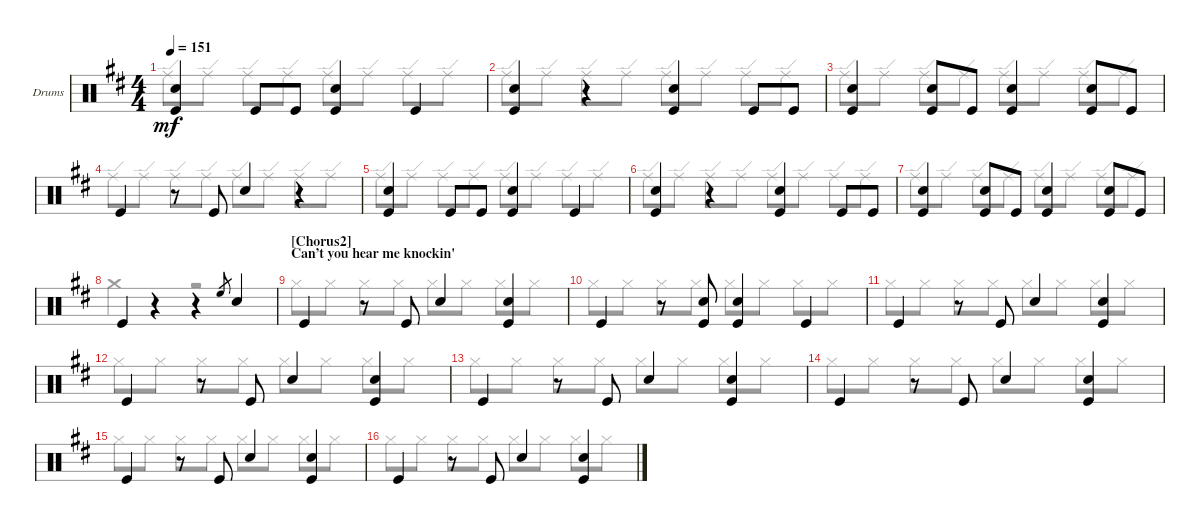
\bracketExtendMode groupsimilarinstruments
\firstSystemTrackNameOrientation horizontal
\otherSystemsTrackNameOrientation horizontal
\track ("Drumkit" "Drums") {instrument percussion}
\staff {score}
\articulation defaults
\voice
\ts (4 4)
\tempo 151
\clef neutral
\ks d
("Kick (hit)" "Snare (hit) 2").4{dy mf} "Kick (hit)".8 "Kick (hit)".8 ("Kick (hit)" "Snare (hit) 2").4 "Kick (hit)".4 |
("Kick (hit)" "Snare (hit) 2").4 r.4 ("Kick (hit)" "Snare (hit) 2").4 "Kick (hit)".8 "Kick (hit)".8 |
("Kick (hit)" "Snare (hit) 2").4 ("Kick (hit)" "Snare (hit) 2").8 "Kick (hit)".8 ("Kick (hit)" "Snare (hit) 2").4 ("Kick (hit)" "Snare (hit) 2").8 "Kick (hit)".8 |
"Kick (hit)".4 r.8 "Kick (hit)".8 "Snare (hit) 2".4 r.4 |
("Kick (hit)" "Snare (hit) 2").4 "Kick (hit)".8 "Kick (hit)".8 ("Kick (hit)" "Snare (hit) 2").4 "Kick (hit)".4 |
("Kick (hit)" "Snare (hit) 2").4 r.4 ("Kick (hit)" "Snare (hit) 2").4 "Kick (hit)".8 "Kick (hit)".8 |
("Kick (hit)" "Snare (hit) 2").4 ("Kick (hit)" "Snare (hit) 2").8 "Kick (hit)".8 ("Kick (hit)" "Snare (hit) 2").4 ("Kick (hit)" "Snare (hit) 2").8 "Kick (hit)".8 |
"Kick (hit)".4 r.4 r.4 "High Floor Tom (hit)".8{gr} "Snare (hit) 2".4 |
\section ("" "[Chorus2]\nCan’t you hear me knockin'\n")
"Kick (hit)".4 r.8 "Kick (hit)".8 "Snare (hit) 2".4 ("Kick (hit)" "Snare (hit) 2").4 |
"Kick (hit)".4 r.8 ("Kick (hit)" "Snare (hit) 2").8 ("Kick (hit)" "Snare (hit) 2").4 "Kick (hit)".4 |
"Kick (hit)".4 r.8 "Kick (hit)".8 "Snare (hit) 2".4 ("Kick (hit)" "Snare (hit) 2").4 |
"Kick (hit)".4 r.8 "Kick (hit)".8 "Snare (hit) 2".4 ("Kick (hit)" "Snare (hit) 2").4 |
"Kick (hit)".4 r.8 "Kick (hit)".8 "Snare (hit) 2".4 ("Kick (hit)" "Snare (hit) 2").4 |
"Kick (hit)".4 r.8 "Kick (hit)".8 "Snare (hit) 2".4 ("Kick (hit)" "Snare (hit) 2").4 |
"Kick (hit)".4 r.8 "Kick (hit)".8 "Snare (hit) 2".4 ("Kick (hit)" "Snare (hit) 2").4 |
"Kick (hit)".4 r.8 "Kick (hit)".8 "Snare (hit) 2".4 ("Kick (hit)" "Snare (hit) 2").4
\voice
\clef neutral
\ottava regular
\simile none
\ks d "Ride (edge)".8{dy mf} "Ride (edge)".8 "Ride (edge)".8 "Ride (edge)".8 "Ride (edge)".8 "Ride (edge)".8 "Ride (edge)".8 "Ride (edge)".8
|
"Ride (edge)".8 "Ride (edge)".8 "Ride (edge)".8 "Ride (edge)".8 "Ride (edge)".8 "Ride (edge)".8 "Ride (edge)".8 "Ride (edge)".8 |
"Ride (edge)".8 "Ride (edge)".8 "Ride (edge)".8 "Ride (edge)".8 "Ride (edge)".8 "Ride (edge)".8 "Ride (edge)".8 "Ride (edge)".8 |
"Ride (edge)".8 "Ride (edge)".8 "Ride (edge)".8 "Ride (edge)".8 "Ride (edge)".8 "Ride (edge)".8 "Ride (edge)".8 "Ride (edge)".8 |
"Ride (edge)".8 "Ride (edge)".8 "Ride (edge)".8 "Ride (edge)".8 "Ride (edge)".8 "Ride (edge)".8 "Ride (edge)".8 "Ride (edge)".8 |
"Ride (edge)".8 "Ride (edge)".8 "Ride (edge)".8 "Ride (edge)".8 "Ride (edge)".8 "Ride (edge)".8 "Ride (edge)".8 "Ride (edge)".8 |
"Ride (edge)".8 "Ride (edge)".8 "Ride (edge)".8 "Ride (edge)".8 "Ride (edge)".8 "Ride (edge)".8 "Ride (edge)".8 "Ride (edge)".8 |
"Crash medium (hit)".4 r.4 r.2 |
"Hi-Hat (closed)".8 "Hi-Hat (closed)".8 "Hi-Hat (closed)".8 "Hi-Hat (closed)".8 "Hi-Hat (closed)".8 "Hi-Hat (closed)".8 "Hi-Hat (closed)".8 "Hi-Hat (closed)".8 |
"Hi-Hat (closed)".8 "Hi-Hat (closed)".8 "Hi-Hat (closed)".8 "Hi-Hat (closed)".8 "Hi-Hat (closed)".8 "Hi-Hat (closed)".8 "Hi-Hat (closed)".8 "Hi-Hat (closed)".8 |
"Hi-Hat (closed)".8 "Hi-Hat (closed)".8 "Hi-Hat (closed)".8 "Hi-Hat (closed)".8 "Hi-Hat (closed)".8 "Hi-Hat (closed)".8 "Hi-Hat (closed)".8 "Hi-Hat (closed)".8 |
"Hi-Hat (closed)".8 "Hi-Hat (closed)".8 "Hi-Hat (closed)".8 "Hi-Hat (closed)".8 "Hi-Hat (closed)".8 "Hi-Hat (closed)".8 "Hi-Hat (closed)".8 "Hi-Hat (closed)".8 |
"Hi-Hat (closed)".8 "Hi-Hat (closed)".8 "Hi-Hat (closed)".8 "Hi-Hat (closed)".8 "Hi-Hat (closed)".8 "Hi-Hat (closed)".8 "Hi-Hat (closed)".8 "Hi-Hat (closed)".8 |
"Hi-Hat (closed)".8 "Hi-Hat (closed)".8 "Hi-Hat (closed)".8 "Hi-Hat (closed)".8 "Hi-Hat (closed)".8 "Hi-Hat (closed)".8 "Hi-Hat (closed)".8 "Hi-Hat (closed)".8 |
"Hi-Hat (closed)".8 "Hi-Hat (closed)".8 "Hi-Hat (closed)".8 "Hi-Hat (closed)".8 "Hi-Hat (closed)".8 "Hi-Hat (closed)".8 "Hi-Hat (closed)".8 "Hi-Hat (closed)".8 |
"Hi-Hat (closed)".8 "Hi-Hat (closed)".8 "Hi-Hat (closed)".8 "Hi-Hat (closed)".8 "Hi-Hat (closed)".8 "Hi-Hat (closed)".8 "Hi-Hat (closed)".8 "Hi-Hat (closed)".8
